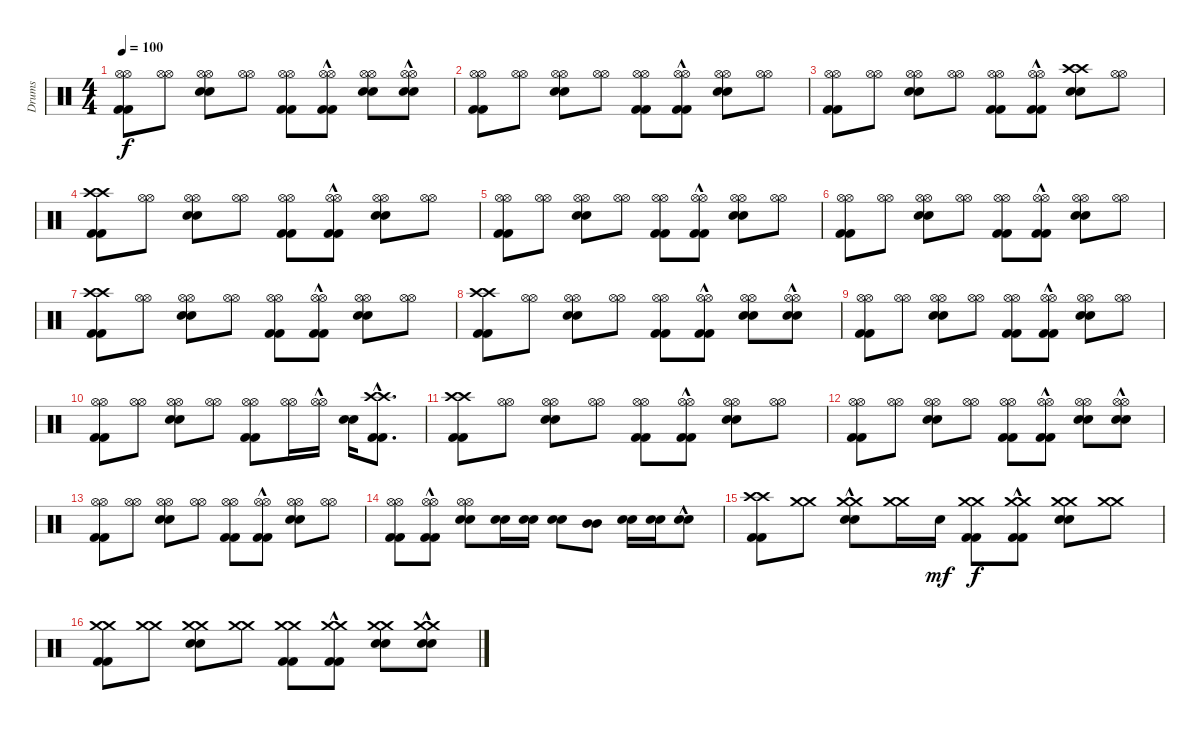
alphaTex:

\track ("Drums" "Drums") {instrument percussion}
\staff {score}
\articulation defaults
\ts (4 4)
\tempo 100
\clef neutral
\ks c
("Kick (hit) 2" "Kick (hit) 2" "Hi-Hat (open)" "Hi-Hat (open)").8{dy f} ("Hi-Hat (open)" "Hi-Hat (open)").8 ("Snare (hit) 2" "Snare (hit) 2" "Hi-Hat (open)" "Hi-Hat (open)").8 ("Hi-Hat (open)" "Hi-Hat (open)").8 ("Kick (hit) 2" "Kick (hit) 2" "Hi-Hat (open)" "Hi-Hat (open)").8 ("Kick (hit) 2"{hac} "Kick (hit) 2"{hac} "Hi-Hat (open)" "Hi-Hat (open)").8 ("Snare (hit) 2" "Snare (hit) 2" "Hi-Hat (open)" "Hi-Hat (open)").8 ("Snare (hit) 2"{hac} "Snare (hit) 2"{hac} "Hi-Hat (open)" "Hi-Hat (open)").8 |
("Kick (hit) 2" "Kick (hit) 2" "Hi-Hat (open)" "Hi-Hat (open)").8 ("Hi-Hat (open)" "Hi-Hat (open)").8 ("Snare (hit) 2" "Snare (hit) 2" "Hi-Hat (open)" "Hi-Hat (open)").8 ("Hi-Hat (open)" "Hi-Hat (open)").8 ("Kick (hit) 2" "Kick (hit) 2" "Hi-Hat (open)" "Hi-Hat (open)").8 ("Kick (hit) 2"{hac} "Kick (hit) 2"{hac} "Hi-Hat (open)" "Hi-Hat (open)").8 ("Snare (hit) 2" "Snare (hit) 2" "Hi-Hat (open)" "Hi-Hat (open)").8 ("Hi-Hat (open)" "Hi-Hat (open)").8 |
("Kick (hit) 2" "Kick (hit) 2" "Hi-Hat (open)" "Hi-Hat (open)").8 ("Hi-Hat (open)" "Hi-Hat (open)").8 ("Snare (hit) 2" "Snare (hit) 2" "Hi-Hat (open)" "Hi-Hat (open)").8 ("Hi-Hat (open)" "Hi-Hat (open)").8 ("Kick (hit) 2" "Kick (hit) 2" "Hi-Hat (open)" "Hi-Hat (open)").8 ("Kick (hit) 2"{hac} "Kick (hit) 2"{hac} "Hi-Hat (open)" "Hi-Hat (open)").8 ("Snare (hit) 2" "Snare (hit) 2" "Crash high (hit)" "Crash high (hit)").8 ("Hi-Hat (open)" "Hi-Hat (open)").8 |
("Kick (hit) 2" "Kick (hit) 2" "Crash high (hit)" "Crash high (hit)").8 ("Hi-Hat (open)" "Hi-Hat (open)").8 ("Snare (hit) 2" "Snare (hit) 2" "Hi-Hat (open)" "Hi-Hat (open)").8 ("Hi-Hat (open)" "Hi-Hat (open)").8 ("Kick (hit) 2" "Kick (hit) 2" "Hi-Hat (open)" "Hi-Hat (open)").8 ("Kick (hit) 2"{hac} "Kick (hit) 2"{hac} "Hi-Hat (open)" "Hi-Hat (open)").8 ("Snare (hit) 2" "Snare (hit) 2" "Hi-Hat (open)" "Hi-Hat (open)").8 ("Hi-Hat (open)" "Hi-Hat (open)").8 |
("Kick (hit) 2" "Kick (hit) 2" "Hi-Hat (open)" "Hi-Hat (open)").8 ("Hi-Hat (open)" "Hi-Hat (open)").8 ("Snare (hit) 2" "Snare (hit) 2" "Hi-Hat (open)" "Hi-Hat (open)").8 ("Hi-Hat (open)" "Hi-Hat (open)").8 ("Kick (hit) 2" "Kick (hit) 2" "Hi-Hat (open)" "Hi-Hat (open)").8 ("Kick (hit) 2"{hac} "Kick (hit) 2"{hac} "Hi-Hat (open)" "Hi-Hat (open)").8 ("Snare (hit) 2" "Snare (hit) 2" "Hi-Hat (open)" "Hi-Hat (open)").8 ("Hi-Hat (open)" "Hi-Hat (open)").8 |
("Kick (hit) 2" "Kick (hit) 2" "Hi-Hat (open)" "Hi-Hat (open)").8 ("Hi-Hat (open)" "Hi-Hat (open)").8 ("Snare (hit) 2" "Snare (hit) 2" "Hi-Hat (open)" "Hi-Hat (open)").8 ("Hi-Hat (open)" "Hi-Hat (open)").8 ("Kick (hit) 2" "Kick (hit) 2" "Hi-Hat (open)" "Hi-Hat (open)").8 ("Kick (hit) 2"{hac} "Kick (hit) 2"{hac} "Hi-Hat (open)" "Hi-Hat (open)").8 ("Snare (hit) 2" "Snare (hit) 2" "Hi-Hat (open)" "Hi-Hat (open)").8 ("Hi-Hat (open)" "Hi-Hat (open)").8 |
("Kick (hit) 2" "Kick (hit) 2" "Crash high (hit)" "Crash high (hit)").8 ("Hi-Hat (open)" "Hi-Hat (open)").8 ("Snare (hit) 2" "Snare (hit) 2" "Hi-Hat (open)" "Hi-Hat (open)").8 ("Hi-Hat (open)" "Hi-Hat (open)").8 ("Kick (hit) 2" "Kick (hit) 2" "Hi-Hat (open)" "Hi-Hat (open)").8 ("Kick (hit) 2"{hac} "Kick (hit) 2"{hac} "Hi-Hat (open)" "Hi-Hat (open)").8 ("Snare (hit) 2" "Snare (hit) 2" "Hi-Hat (open)" "Hi-Hat (open)").8 ("Hi-Hat (open)" "Hi-Hat (open)").8 |
("Kick (hit) 2" "Kick (hit) 2" "Crash high (hit)" "Crash high (hit)").8 ("Hi-Hat (open)" "Hi-Hat (open)").8 ("Snare (hit) 2" "Snare (hit) 2" "Hi-Hat (open)" "Hi-Hat (open)").8 ("Hi-Hat (open)" "Hi-Hat (open)").8 ("Kick (hit) 2" "Kick (hit) 2" "Hi-Hat (open)" "Hi-Hat (open)").8 ("Kick (hit) 2"{hac} "Kick (hit) 2"{hac} "Hi-Hat (open)" "Hi-Hat (open)").8 ("Snare (hit) 2" "Snare (hit) 2" "Hi-Hat (open)" "Hi-Hat (open)").8 ("Snare (hit) 2"{hac} "Snare (hit) 2"{hac} "Hi-Hat (open)" "Hi-Hat (open)").8 |
("Kick (hit) 2" "Kick (hit) 2" "Hi-Hat (open)" "Hi-Hat (open)").8 ("Hi-Hat (open)" "Hi-Hat (open)").8 ("Snare (hit) 2" "Snare (hit) 2" "Hi-Hat (open)" "Hi-Hat (open)").8 ("Hi-Hat (open)" "Hi-Hat (open)").8 ("Kick (hit) 2" "Kick (hit) 2" "Hi-Hat (open)" "Hi-Hat (open)").8 ("Kick (hit) 2"{hac} "Kick (hit) 2"{hac} "Hi-Hat (open)" "Hi-Hat (open)").8 ("Snare (hit) 2" "Snare (hit) 2" "Hi-Hat (open)" "Hi-Hat (open)").8 ("Hi-Hat (open)" "Hi-Hat (open)").8 |
("Kick (hit) 2" "Kick (hit) 2" "Hi-Hat (open)" "Hi-Hat (open)").8 ("Hi-Hat (open)" "Hi-Hat (open)").8 ("Snare (hit) 2" "Snare (hit) 2" "Hi-Hat (open)" "Hi-Hat (open)").8 ("Hi-Hat (open)" "Hi-Hat (open)").8 ("Kick (hit) 2" "Kick (hit) 2" "Hi-Hat (open)" "Hi-Hat (open)").8 ("Hi-Hat (open)" "Hi-Hat (open)").16 ("Hi-Hat (open)"{hac} "Hi-Hat (open)"{hac}).16 ("Snare (hit) 2" "Snare (hit) 2").16 ("Kick (hit) 2"{hac} "Kick (hit) 2"{hac} "Crash high (hit)"{hac} "Crash high (hit)"{hac}).8{d} |
("Kick (hit) 2" "Kick (hit) 2" "Crash high (hit)" "Crash high (hit)").8 ("Hi-Hat (open)" "Hi-Hat (open)").8 ("Snare (hit) 2" "Snare (hit) 2" "Hi-Hat (open)" "Hi-Hat (open)").8 ("Hi-Hat (open)" "Hi-Hat (open)").8 ("Kick (hit) 2" "Kick (hit) 2" "Hi-Hat (open)" "Hi-Hat (open)").8 ("Kick (hit) 2"{hac} "Kick (hit) 2"{hac} "Hi-Hat (open)" "Hi-Hat (open)").8 ("Snare (hit) 2" "Snare (hit) 2" "Hi-Hat (open)" "Hi-Hat (open)").8 ("Hi-Hat (open)" "Hi-Hat (open)").8 |
("Kick (hit) 2" "Kick (hit) 2" "Hi-Hat (open)" "Hi-Hat (open)").8 ("Hi-Hat (open)" "Hi-Hat (open)").8 ("Snare (hit) 2" "Snare (hit) 2" "Hi-Hat (open)" "Hi-Hat (open)").8 ("Hi-Hat (open)" "Hi-Hat (open)").8 ("Kick (hit) 2" "Kick (hit) 2" "Hi-Hat (open)" "Hi-Hat (open)").8 ("Kick (hit) 2"{hac} "Kick (hit) 2"{hac} "Hi-Hat (open)" "Hi-Hat (open)").8 ("Snare (hit) 2" "Snare (hit) 2" "Hi-Hat (open)" "Hi-Hat (open)").8 ("Snare (hit) 2"{hac} "Snare (hit) 2"{hac} "Hi-Hat (open)" "Hi-Hat (open)").8 |
("Kick (hit) 2" "Kick (hit) 2" "Hi-Hat (open)" "Hi-Hat (open)").8 ("Hi-Hat (open)" "Hi-Hat (open)").8 ("Snare (hit) 2" "Snare (hit) 2" "Hi-Hat (open)" "Hi-Hat (open)").8 ("Hi-Hat (open)" "Hi-Hat (open)").8 ("Kick (hit) 2" "Kick (hit) 2" "Hi-Hat (open)" "Hi-Hat (open)").8 ("Kick (hit) 2"{hac} "Kick (hit) 2"{hac} "Hi-Hat (open)" "Hi-Hat (open)").8 ("Snare (hit) 2" "Snare (hit) 2" "Hi-Hat (open)" "Hi-Hat (open)").8 ("Hi-Hat (open)" "Hi-Hat (open)").8 |
("Kick (hit) 2" "Kick (hit) 2" "Hi-Hat (open)" "Hi-Hat (open)").8 ("Kick (hit) 2"{hac} "Kick (hit) 2"{hac} "Hi-Hat (open)" "Hi-Hat (open)").8 ("Snare (hit) 2" "Snare (hit) 2" "Hi-Hat (open)" "Hi-Hat (open)").8 ("Snare (hit) 2" "Snare (hit) 2").16 ("Snare (hit) 2" "Snare (hit) 2").16 ("Snare (hit) 2" "Snare (hit) 2").8 ("Mid Tom (hit)" "Mid Tom (hit)").8 ("Snare (hit) 2" "Snare (hit) 2").16 ("Snare (hit) 2" "Snare (hit) 2").16 ("Snare (hit) 2"{hac} "Snare (hit) 2"{hac}).8 |
("Kick (hit) 2" "Kick (hit) 2" "Crash high (hit)" "Crash high (hit)").8 ("Crash medium (hit)" "Crash medium (hit)").8 ("Snare (hit) 2"{hac} "Snare (hit) 2"{hac} "Crash medium (hit)" "Crash medium (hit)").8 ("Crash medium (hit)" "Crash medium (hit)").16 "Snare (hit) 2".16{dy mf} ("Kick (hit) 2" "Kick (hit) 2" "Crash medium (hit)" "Crash medium (hit)").8{dy f} ("Kick (hit) 2"{hac} "Kick (hit) 2"{hac} "Crash medium (hit)" "Crash medium (hit)").8 ("Snare (hit) 2" "Snare (hit) 2" "Crash medium (hit)" "Crash medium (hit)").8 ("Crash medium (hit)" "Crash medium (hit)").8 |
("Kick (hit) 2" "Kick (hit) 2" "Crash medium (hit)" "Crash medium (hit)").8 ("Crash medium (hit)" "Crash medium (hit)").8 ("Snare (hit) 2" "Snare (hit) 2" "Crash medium (hit)" "Crash medium (hit)").8 ("Crash medium (hit)" "Crash medium (hit)").8 ("Kick (hit) 2" "Kick (hit) 2" "Crash medium (hit)" "Crash medium (hit)").8 ("Kick (hit) 2"{hac} "Kick (hit) 2"{hac} "Crash medium (hit)" "Crash medium (hit)").8 ("Snare (hit) 2" "Snare (hit) 2" "Crash medium (hit)" "Crash medium (hit)").8 ("Snare (hit) 2"{hac} "Snare (hit) 2"{hac} "Crash medium (hit)" "Crash medium (hit)").8
